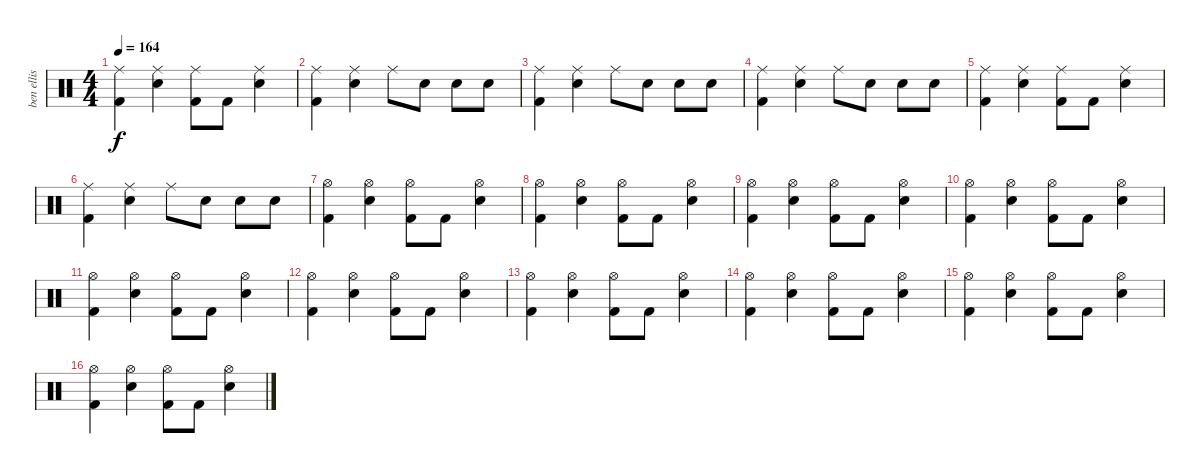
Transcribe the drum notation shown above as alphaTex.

\track ("ben ellis" "ben ellis") {instrument percussion}
\staff {score}
\articulation defaults
\ts (4 4)
\tempo 164
\clef neutral
\ks c
("Ride (middle)" "Kick (hit) 2").4{dy f} ("Ride (middle)" "Electric Snare (hit)").4 ("Ride (middle)" "Kick (hit) 2").8 "Kick (hit) 2".8 ("Ride (middle)" "Electric Snare (hit)").4 |
("Ride (middle)" "Kick (hit) 2").4 ("Ride (middle)" "Electric Snare (hit)").4 "Ride (middle)".8 "Electric Snare (hit)".8 "Electric Snare (hit)".8 "Electric Snare (hit)".8 |
("Ride (middle)" "Kick (hit) 2").4 ("Ride (middle)" "Electric Snare (hit)").4 "Ride (middle)".8 "Electric Snare (hit)".8 "Electric Snare (hit)".8 "Electric Snare (hit)".8 |
("Ride (middle)" "Kick (hit) 2").4 ("Ride (middle)" "Electric Snare (hit)").4 "Ride (middle)".8 "Electric Snare (hit)".8 "Electric Snare (hit)".8 "Electric Snare (hit)".8 |
("Ride (middle)" "Kick (hit) 2").4 ("Ride (middle)" "Electric Snare (hit)").4 ("Ride (middle)" "Kick (hit) 2").8 "Kick (hit) 2".8 ("Ride (middle)" "Electric Snare (hit)").4 |
("Ride (middle)" "Kick (hit) 2").4 ("Ride (middle)" "Electric Snare (hit)").4 "Ride (middle)".8 "Electric Snare (hit)".8 "Electric Snare (hit)".8 "Electric Snare (hit)".8 |
("Hi-Hat (open)" "Kick (hit) 2").4 ("Hi-Hat (open)" "Electric Snare (hit)").4 ("Hi-Hat (open)" "Kick (hit) 2").8 "Kick (hit) 2".8 ("Hi-Hat (open)" "Electric Snare (hit)").4 |
("Hi-Hat (open)" "Kick (hit) 2").4 ("Hi-Hat (open)" "Electric Snare (hit)").4 ("Hi-Hat (open)" "Kick (hit) 2").8 "Kick (hit) 2".8 ("Hi-Hat (open)" "Electric Snare (hit)").4 |
("Hi-Hat (open)" "Kick (hit) 2").4 ("Hi-Hat (open)" "Electric Snare (hit)").4 ("Hi-Hat (open)" "Kick (hit) 2").8 "Kick (hit) 2".8 ("Hi-Hat (open)" "Electric Snare (hit)").4 |
("Hi-Hat (open)" "Kick (hit) 2").4 ("Hi-Hat (open)" "Electric Snare (hit)").4 ("Hi-Hat (open)" "Kick (hit) 2").8 "Kick (hit) 2".8 ("Hi-Hat (open)" "Electric Snare (hit)").4 |
("Hi-Hat (open)" "Kick (hit) 2").4 ("Hi-Hat (open)" "Electric Snare (hit)").4 ("Hi-Hat (open)" "Kick (hit) 2").8 "Kick (hit) 2".8 ("Hi-Hat (open)" "Electric Snare (hit)").4 |
("Hi-Hat (open)" "Kick (hit) 2").4 ("Hi-Hat (open)" "Electric Snare (hit)").4 ("Hi-Hat (open)" "Kick (hit) 2").8 "Kick (hit) 2".8 ("Hi-Hat (open)" "Electric Snare (hit)").4 |
("Hi-Hat (open)" "Kick (hit) 2").4 ("Hi-Hat (open)" "Electric Snare (hit)").4 ("Hi-Hat (open)" "Kick (hit) 2").8 "Kick (hit) 2".8 ("Hi-Hat (open)" "Electric Snare (hit)").4 |
("Hi-Hat (open)" "Kick (hit) 2").4 ("Hi-Hat (open)" "Electric Snare (hit)").4 ("Hi-Hat (open)" "Kick (hit) 2").8 "Kick (hit) 2".8 ("Hi-Hat (open)" "Electric Snare (hit)").4 |
("Hi-Hat (open)" "Kick (hit) 2").4 ("Hi-Hat (open)" "Electric Snare (hit)").4 ("Hi-Hat (open)" "Kick (hit) 2").8 "Kick (hit) 2".8 ("Hi-Hat (open)" "Electric Snare (hit)").4 |
("Hi-Hat (open)" "Kick (hit) 2").4 ("Hi-Hat (open)" "Electric Snare (hit)").4 ("Hi-Hat (open)" "Kick (hit) 2").8 "Kick (hit) 2".8 ("Hi-Hat (open)" "Electric Snare (hit)").4
